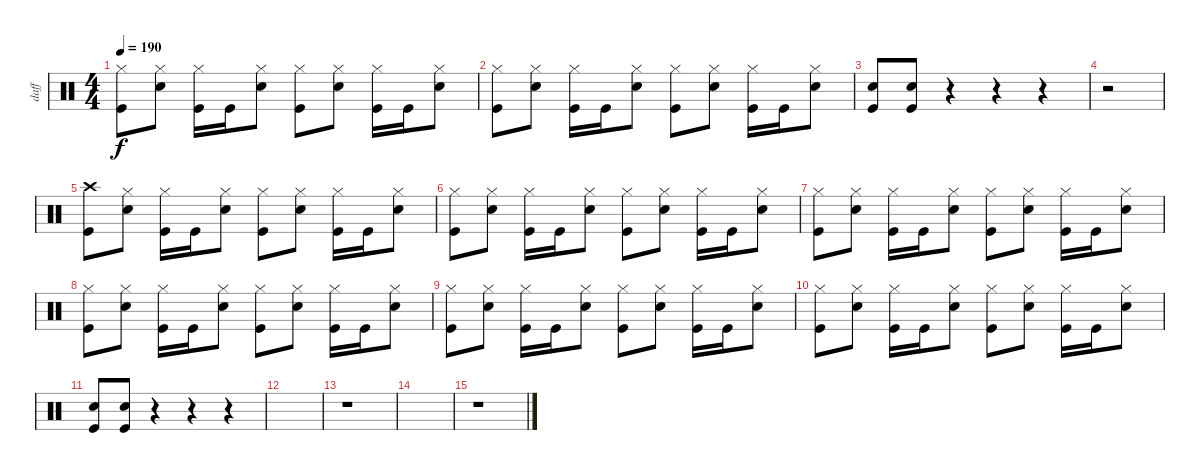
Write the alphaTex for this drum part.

\track ("daff" "daff") {instrument percussion}
\staff {score}
\articulation defaults
\ts (4 4)
\tempo 190
\clef neutral
\ks c
("Hi-Hat (closed)" "Kick (hit)").8{dy f} ("Hi-Hat (closed)" "Electric Snare (hit)").8 ("Hi-Hat (closed)" "Kick (hit)").16 "Kick (hit)".16 ("Hi-Hat (closed)" "Electric Snare (hit)").8 ("Hi-Hat (closed)" "Kick (hit)").8 ("Hi-Hat (closed)" "Electric Snare (hit)").8 ("Hi-Hat (closed)" "Kick (hit)").16 "Kick (hit)".16 ("Hi-Hat (closed)" "Electric Snare (hit)").8 |
("Hi-Hat (closed)" "Kick (hit)").8 ("Hi-Hat (closed)" "Electric Snare (hit)").8 ("Hi-Hat (closed)" "Kick (hit)").16 "Kick (hit)".16 ("Hi-Hat (closed)" "Electric Snare (hit)").8 ("Hi-Hat (closed)" "Kick (hit)").8 ("Hi-Hat (closed)" "Electric Snare (hit)").8 ("Hi-Hat (closed)" "Kick (hit)").16 "Kick (hit)".16 ("Hi-Hat (closed)" "Electric Snare (hit)").8 |
("Electric Snare (hit)" "Kick (hit)").8 ("Electric Snare (hit)" "Kick (hit)").8 r.4 r.4 r.4 |
r.2 |
("Crash high (hit)" "Kick (hit)").8 ("Hi-Hat (closed)" "Electric Snare (hit)").8 ("Hi-Hat (closed)" "Kick (hit)").16 "Kick (hit)".16 ("Hi-Hat (closed)" "Electric Snare (hit)").8 ("Hi-Hat (closed)" "Kick (hit)").8 ("Hi-Hat (closed)" "Electric Snare (hit)").8 ("Hi-Hat (closed)" "Kick (hit)").16 "Kick (hit)".16 ("Hi-Hat (closed)" "Electric Snare (hit)").8 |
("Hi-Hat (closed)" "Kick (hit)").8 ("Hi-Hat (closed)" "Electric Snare (hit)").8 ("Hi-Hat (closed)" "Kick (hit)").16 "Kick (hit)".16 ("Hi-Hat (closed)" "Electric Snare (hit)").8 ("Hi-Hat (closed)" "Kick (hit)").8 ("Hi-Hat (closed)" "Electric Snare (hit)").8 ("Hi-Hat (closed)" "Kick (hit)").16 "Kick (hit)".16 ("Hi-Hat (closed)" "Electric Snare (hit)").8 |
("Hi-Hat (closed)" "Kick (hit)").8 ("Hi-Hat (closed)" "Electric Snare (hit)").8 ("Hi-Hat (closed)" "Kick (hit)").16 "Kick (hit)".16 ("Hi-Hat (closed)" "Electric Snare (hit)").8 ("Hi-Hat (closed)" "Kick (hit)").8 ("Hi-Hat (closed)" "Electric Snare (hit)").8 ("Hi-Hat (closed)" "Kick (hit)").16 "Kick (hit)".16 ("Hi-Hat (closed)" "Electric Snare (hit)").8 |
("Hi-Hat (closed)" "Kick (hit)").8 ("Hi-Hat (closed)" "Electric Snare (hit)").8 ("Hi-Hat (closed)" "Kick (hit)").16 "Kick (hit)".16 ("Hi-Hat (closed)" "Electric Snare (hit)").8 ("Hi-Hat (closed)" "Kick (hit)").8 ("Hi-Hat (closed)" "Electric Snare (hit)").8 ("Hi-Hat (closed)" "Kick (hit)").16 "Kick (hit)".16 ("Hi-Hat (closed)" "Electric Snare (hit)").8 |
("Hi-Hat (closed)" "Kick (hit)").8 ("Hi-Hat (closed)" "Electric Snare (hit)").8 ("Hi-Hat (closed)" "Kick (hit)").16 "Kick (hit)".16 ("Hi-Hat (closed)" "Electric Snare (hit)").8 ("Hi-Hat (closed)" "Kick (hit)").8 ("Hi-Hat (closed)" "Electric Snare (hit)").8 ("Hi-Hat (closed)" "Kick (hit)").16 "Kick (hit)".16 ("Hi-Hat (closed)" "Electric Snare (hit)").8 |
("Hi-Hat (closed)" "Kick (hit)").8 ("Hi-Hat (closed)" "Electric Snare (hit)").8 ("Hi-Hat (closed)" "Kick (hit)").16 "Kick (hit)".16 ("Hi-Hat (closed)" "Electric Snare (hit)").8 ("Hi-Hat (closed)" "Kick (hit)").8 ("Hi-Hat (closed)" "Electric Snare (hit)").8 ("Hi-Hat (closed)" "Kick (hit)").16 "Kick (hit)".16 ("Hi-Hat (closed)" "Electric Snare (hit)").8 |
("Electric Snare (hit)" "Kick (hit)").8 ("Electric Snare (hit)" "Kick (hit)").8 r.4 r.4 r.4 |
|
r.1 |
|
r.1
